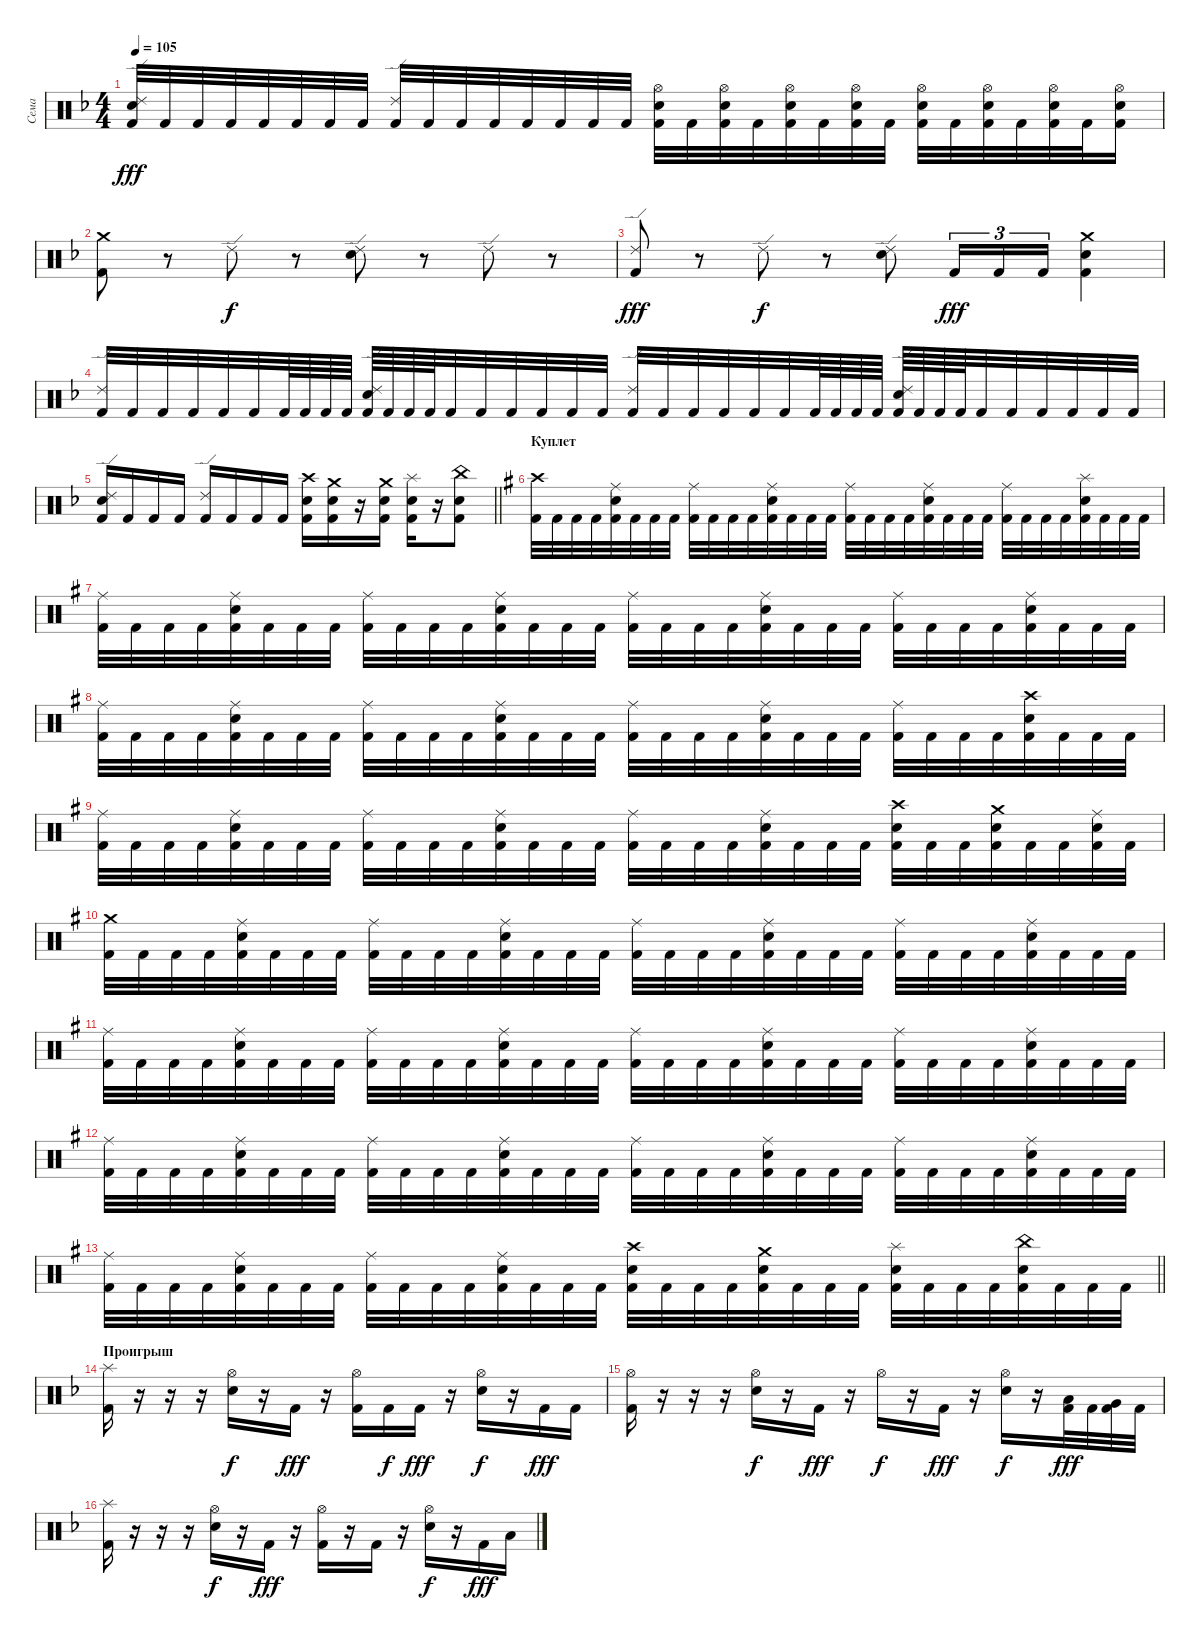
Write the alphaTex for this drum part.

\track ("Сема" "Сема") {instrument percussion}
\staff {score}
\articulation defaults
\ts (4 4)
\tempo 105
\clef neutral
\ks dminor
("Ride (edge) 2" "Electric Snare (hit)" "Kick (hit) 2").32{dy fff} "Kick (hit) 2".32 "Kick (hit) 2".32 "Kick (hit) 2".32 "Kick (hit) 2".32 "Kick (hit) 2".32 "Kick (hit) 2".32 "Kick (hit) 2".32 ("Ride (edge) 2" "Kick (hit) 2").32 "Kick (hit) 2".32 "Kick (hit) 2".32 "Kick (hit) 2".32 "Kick (hit) 2".32 "Kick (hit) 2".32 "Kick (hit) 2".32 "Kick (hit) 2".32 ("Hi-Hat (open)" "Electric Snare (hit)" "Kick (hit) 2").32 "Kick (hit) 2".32 ("Hi-Hat (open)" "Electric Snare (hit)" "Kick (hit) 2").32 "Kick (hit) 2".32 ("Hi-Hat (open)" "Electric Snare (hit)" "Kick (hit) 2").32 "Kick (hit) 2".32 ("Hi-Hat (open)" "Electric Snare (hit)" "Kick (hit) 2").32 "Kick (hit) 2".32 ("Hi-Hat (open)" "Electric Snare (hit)" "Kick (hit) 2").32 "Kick (hit) 2".32 ("Hi-Hat (open)" "Electric Snare (hit)" "Kick (hit) 2").32 "Kick (hit) 2".32 ("Hi-Hat (open)" "Electric Snare (hit)" "Kick (hit) 2").32 "Kick (hit) 2".32 ("Hi-Hat (open)" "Electric Snare (hit)" "Kick (hit) 2").16 |
("Crash medium (hit)" "Kick (hit) 2").8 r.8 "Ride (edge) 2".8{dy f} r.8 ("Ride (edge) 2" "Electric Snare (hit)").8 r.8 "Ride (edge) 2".8 r.8 |
("Ride (edge) 2" "Kick (hit) 2").8{dy fff} r.8 "Ride (edge) 2".8{dy f} r.8 ("Ride (edge) 2" "Electric Snare (hit)").8 "Kick (hit) 2".16{tu (3 2) dy fff} "Kick (hit) 2".16{tu (3 2)} "Kick (hit) 2".16{tu (3 2)} ("Crash medium (hit)" "Electric Snare (hit)" "Kick (hit) 2").4 |
("Ride (edge) 2" "Kick (hit) 2").32 "Kick (hit) 2".32 "Kick (hit) 2".32 "Kick (hit) 2".32 "Kick (hit) 2".32 "Kick (hit) 2".32 "Kick (hit) 2".64 "Kick (hit) 2".64 "Kick (hit) 2".64 "Kick (hit) 2".64 ("Ride (edge) 2" "Electric Snare (hit)" "Kick (hit) 2").64 "Kick (hit) 2".64 "Kick (hit) 2".64 "Kick (hit) 2".64 "Kick (hit) 2".32 "Kick (hit) 2".32 "Kick (hit) 2".32 "Kick (hit) 2".32 "Kick (hit) 2".32 "Kick (hit) 2".32 ("Ride (edge) 2" "Kick (hit) 2").32 "Kick (hit) 2".32 "Kick (hit) 2".32 "Kick (hit) 2".32 "Kick (hit) 2".32 "Kick (hit) 2".32 "Kick (hit) 2".64 "Kick (hit) 2".64 "Kick (hit) 2".64 "Kick (hit) 2".64 ("Ride (edge) 2" "Electric Snare (hit)" "Kick (hit) 2").64 "Kick (hit) 2".64 "Kick (hit) 2".64 "Kick (hit) 2".64 "Kick (hit) 2".32 "Kick (hit) 2".32 "Kick (hit) 2".32 "Kick (hit) 2".32 "Kick (hit) 2".32 "Kick (hit) 2".32 |
\barLineRight lightlight
("Ride (edge) 2" "Electric Snare (hit)" "Kick (hit) 2").16 "Kick (hit) 2".16 "Kick (hit) 2".16 "Kick (hit) 2".16 ("Ride (edge) 2" "Kick (hit) 2").16 "Kick (hit) 2".16 "Kick (hit) 2".16 "Kick (hit) 2".16 ("Crash high (hit)" "Electric Snare (hit)" "Kick (hit) 2").16 ("Crash medium (hit)" "Electric Snare (hit)" "Kick (hit) 2").16 r.16 ("Crash medium (hit)" "Electric Snare (hit)" "Kick (hit) 2").16 ("Splash (hit)" "Electric Snare (hit)" "Kick (hit) 2").16 r.16 ("China (hit)" "Electric Snare (hit)" "Kick (hit) 2").8 |
\section ("" "Куплет")
\ks g
("Crash high (hit)" "Kick (hit) 2").32 "Kick (hit) 2".32 "Kick (hit) 2".32 "Kick (hit) 2".32 ("Ride (middle)" "Electric Snare (hit)" "Kick (hit) 2").32 "Kick (hit) 2".32 "Kick (hit) 2".32 "Kick (hit) 2".32 ("Ride (middle)" "Kick (hit) 2").32 "Kick (hit) 2".32 "Kick (hit) 2".32 "Kick (hit) 2".32 ("Ride (middle)" "Electric Snare (hit)" "Kick (hit) 2").32 "Kick (hit) 2".32 "Kick (hit) 2".32 "Kick (hit) 2".32 ("Ride (middle)" "Kick (hit) 2").32 "Kick (hit) 2".32 "Kick (hit) 2".32 "Kick (hit) 2".32 ("Ride (middle)" "Electric Snare (hit)" "Kick (hit) 2").32 "Kick (hit) 2".32 "Kick (hit) 2".32 "Kick (hit) 2".32 ("Ride (middle)" "Kick (hit) 2").32 "Kick (hit) 2".32 "Kick (hit) 2".32 "Kick (hit) 2".32 ("Splash (hit)" "Electric Snare (hit)" "Kick (hit) 2").32 "Kick (hit) 2".32 "Kick (hit) 2".32 "Kick (hit) 2".32 |
("Ride (middle)" "Kick (hit) 2").32 "Kick (hit) 2".32 "Kick (hit) 2".32 "Kick (hit) 2".32 ("Ride (middle)" "Electric Snare (hit)" "Kick (hit) 2").32 "Kick (hit) 2".32 "Kick (hit) 2".32 "Kick (hit) 2".32 ("Ride (middle)" "Kick (hit) 2").32 "Kick (hit) 2".32 "Kick (hit) 2".32 "Kick (hit) 2".32 ("Ride (middle)" "Electric Snare (hit)" "Kick (hit) 2").32 "Kick (hit) 2".32 "Kick (hit) 2".32 "Kick (hit) 2".32 ("Ride (middle)" "Kick (hit) 2").32 "Kick (hit) 2".32 "Kick (hit) 2".32 "Kick (hit) 2".32 ("Ride (middle)" "Electric Snare (hit)" "Kick (hit) 2").32 "Kick (hit) 2".32 "Kick (hit) 2".32 "Kick (hit) 2".32 ("Ride (middle)" "Kick (hit) 2").32 "Kick (hit) 2".32 "Kick (hit) 2".32 "Kick (hit) 2".32 ("Ride (middle)" "Electric Snare (hit)" "Kick (hit) 2").32 "Kick (hit) 2".32 "Kick (hit) 2".32 "Kick (hit) 2".32 |
("Ride (middle)" "Kick (hit) 2").32 "Kick (hit) 2".32 "Kick (hit) 2".32 "Kick (hit) 2".32 ("Ride (middle)" "Electric Snare (hit)" "Kick (hit) 2").32 "Kick (hit) 2".32 "Kick (hit) 2".32 "Kick (hit) 2".32 ("Ride (middle)" "Kick (hit) 2").32 "Kick (hit) 2".32 "Kick (hit) 2".32 "Kick (hit) 2".32 ("Ride (middle)" "Electric Snare (hit)" "Kick (hit) 2").32 "Kick (hit) 2".32 "Kick (hit) 2".32 "Kick (hit) 2".32 ("Ride (middle)" "Kick (hit) 2").32 "Kick (hit) 2".32 "Kick (hit) 2".32 "Kick (hit) 2".32 ("Ride (middle)" "Electric Snare (hit)" "Kick (hit) 2").32 "Kick (hit) 2".32 "Kick (hit) 2".32 "Kick (hit) 2".32 ("Ride (middle)" "Kick (hit) 2").32 "Kick (hit) 2".32 "Kick (hit) 2".32 "Kick (hit) 2".32 ("Crash high (hit)" "Electric Snare (hit)" "Kick (hit) 2").32 "Kick (hit) 2".32 "Kick (hit) 2".32 "Kick (hit) 2".32 |
("Ride (middle)" "Kick (hit) 2").32 "Kick (hit) 2".32 "Kick (hit) 2".32 "Kick (hit) 2".32 ("Ride (middle)" "Electric Snare (hit)" "Kick (hit) 2").32 "Kick (hit) 2".32 "Kick (hit) 2".32 "Kick (hit) 2".32 ("Ride (middle)" "Kick (hit) 2").32 "Kick (hit) 2".32 "Kick (hit) 2".32 "Kick (hit) 2".32 ("Ride (middle)" "Electric Snare (hit)" "Kick (hit) 2").32 "Kick (hit) 2".32 "Kick (hit) 2".32 "Kick (hit) 2".32 ("Ride (middle)" "Kick (hit) 2").32 "Kick (hit) 2".32 "Kick (hit) 2".32 "Kick (hit) 2".32 ("Ride (middle)" "Electric Snare (hit)" "Kick (hit) 2").32 "Kick (hit) 2".32 "Kick (hit) 2".32 "Kick (hit) 2".32 ("Crash high (hit)" "Electric Snare (hit)" "Kick (hit) 2").32 "Kick (hit) 2".32 "Kick (hit) 2".32 ("Crash medium (hit)" "Electric Snare (hit)" "Kick (hit) 2").32 "Kick (hit) 2".32 "Kick (hit) 2".32 ("Ride (middle)" "Electric Snare (hit)" "Kick (hit) 2").32 "Kick (hit) 2".32 |
("Crash medium (hit)" "Kick (hit) 2").32 "Kick (hit) 2".32 "Kick (hit) 2".32 "Kick (hit) 2".32 ("Ride (middle)" "Electric Snare (hit)" "Kick (hit) 2").32 "Kick (hit) 2".32 "Kick (hit) 2".32 "Kick (hit) 2".32 ("Ride (middle)" "Kick (hit) 2").32 "Kick (hit) 2".32 "Kick (hit) 2".32 "Kick (hit) 2".32 ("Ride (middle)" "Electric Snare (hit)" "Kick (hit) 2").32 "Kick (hit) 2".32 "Kick (hit) 2".32 "Kick (hit) 2".32 ("Ride (middle)" "Kick (hit) 2").32 "Kick (hit) 2".32 "Kick (hit) 2".32 "Kick (hit) 2".32 ("Ride (middle)" "Electric Snare (hit)" "Kick (hit) 2").32 "Kick (hit) 2".32 "Kick (hit) 2".32 "Kick (hit) 2".32 ("Ride (middle)" "Kick (hit) 2").32 "Kick (hit) 2".32 "Kick (hit) 2".32 "Kick (hit) 2".32 ("Ride (middle)" "Electric Snare (hit)" "Kick (hit) 2").32 "Kick (hit) 2".32 "Kick (hit) 2".32 "Kick (hit) 2".32 |
("Ride (middle)" "Kick (hit) 2").32 "Kick (hit) 2".32 "Kick (hit) 2".32 "Kick (hit) 2".32 ("Ride (middle)" "Electric Snare (hit)" "Kick (hit) 2").32 "Kick (hit) 2".32 "Kick (hit) 2".32 "Kick (hit) 2".32 ("Ride (middle)" "Kick (hit) 2").32 "Kick (hit) 2".32 "Kick (hit) 2".32 "Kick (hit) 2".32 ("Ride (middle)" "Electric Snare (hit)" "Kick (hit) 2").32 "Kick (hit) 2".32 "Kick (hit) 2".32 "Kick (hit) 2".32 ("Ride (middle)" "Kick (hit) 2").32 "Kick (hit) 2".32 "Kick (hit) 2".32 "Kick (hit) 2".32 ("Ride (middle)" "Electric Snare (hit)" "Kick (hit) 2").32 "Kick (hit) 2".32 "Kick (hit) 2".32 "Kick (hit) 2".32 ("Ride (middle)" "Kick (hit) 2").32 "Kick (hit) 2".32 "Kick (hit) 2".32 "Kick (hit) 2".32 ("Ride (middle)" "Electric Snare (hit)" "Kick (hit) 2").32 "Kick (hit) 2".32 "Kick (hit) 2".32 "Kick (hit) 2".32 |
("Ride (middle)" "Kick (hit) 2").32 "Kick (hit) 2".32 "Kick (hit) 2".32 "Kick (hit) 2".32 ("Ride (middle)" "Electric Snare (hit)" "Kick (hit) 2").32 "Kick (hit) 2".32 "Kick (hit) 2".32 "Kick (hit) 2".32 ("Ride (middle)" "Kick (hit) 2").32 "Kick (hit) 2".32 "Kick (hit) 2".32 "Kick (hit) 2".32 ("Ride (middle)" "Electric Snare (hit)" "Kick (hit) 2").32 "Kick (hit) 2".32 "Kick (hit) 2".32 "Kick (hit) 2".32 ("Ride (middle)" "Kick (hit) 2").32 "Kick (hit) 2".32 "Kick (hit) 2".32 "Kick (hit) 2".32 ("Ride (middle)" "Electric Snare (hit)" "Kick (hit) 2").32 "Kick (hit) 2".32 "Kick (hit) 2".32 "Kick (hit) 2".32 ("Ride (middle)" "Kick (hit) 2").32 "Kick (hit) 2".32 "Kick (hit) 2".32 "Kick (hit) 2".32 ("Ride (middle)" "Electric Snare (hit)" "Kick (hit) 2").32 "Kick (hit) 2".32 "Kick (hit) 2".32 "Kick (hit) 2".32 |
\barLineRight lightlight
("Ride (middle)" "Kick (hit) 2").32 "Kick (hit) 2".32 "Kick (hit) 2".32 "Kick (hit) 2".32 ("Ride (middle)" "Electric Snare (hit)" "Kick (hit) 2").32 "Kick (hit) 2".32 "Kick (hit) 2".32 "Kick (hit) 2".32 ("Ride (middle)" "Kick (hit) 2").32 "Kick (hit) 2".32 "Kick (hit) 2".32 "Kick (hit) 2".32 ("Ride (middle)" "Electric Snare (hit)" "Kick (hit) 2").32 "Kick (hit) 2".32 "Kick (hit) 2".32 "Kick (hit) 2".32 ("Crash high (hit)" "Electric Snare (hit)" "Kick (hit) 2").32 "Kick (hit) 2".32 "Kick (hit) 2".32 "Kick (hit) 2".32 ("Crash medium (hit)" "Electric Snare (hit)" "Kick (hit) 2").32 "Kick (hit) 2".32 "Kick (hit) 2".32 "Kick (hit) 2".32 ("Splash (hit)" "Electric Snare (hit)" "Kick (hit) 2").32 "Kick (hit) 2".32 "Kick (hit) 2".32 "Kick (hit) 2".32 ("China (hit)" "Electric Snare (hit)" "Kick (hit) 2").32 "Kick (hit) 2".32 "Kick (hit) 2".32 "Kick (hit) 2".32 |
\section ("" "Проигрыш")
\ks dminor
("Splash (hit)" "Kick (hit) 2").16 r.16 r.16 r.16 ("Hi-Hat (open)" "Electric Snare (hit)").16{dy f} r.16 "Kick (hit) 2".16{dy fff} r.16 ("Hi-Hat (open)" "Kick (hit) 2").16 "Kick (hit) 2".16{dy f} "Kick (hit) 2".16{dy fff} r.16 ("Hi-Hat (open)" "Electric Snare (hit)").16{dy f} r.16 "Kick (hit) 2".16{dy fff} "Kick (hit) 2".16 |
("Hi-Hat (open)" "Kick (hit) 2").16 r.16 r.16 r.16 ("Hi-Hat (open)" "Electric Snare (hit)").16{dy f} r.16 "Kick (hit) 2".16{dy fff} r.16 "Hi-Hat (open)".16{dy f} r.16 "Kick (hit) 2".16{dy fff} r.16 ("Hi-Hat (open)" "Electric Snare (hit)").16{dy f} r.16 ("Low Tom (hit)" "Kick (hit) 2").32{dy fff} "Kick (hit) 2".32 ("Very Low Tom (hit)" "Kick (hit) 2").32 "Kick (hit) 2".32 |
("Splash (hit)" "Kick (hit) 2").16 r.16 r.16 r.16 ("Hi-Hat (open)" "Electric Snare (hit)").16{dy f} r.16 "Kick (hit) 2".16{dy fff} r.16 ("Hi-Hat (open)" "Kick (hit) 2").16 r.16 "Kick (hit) 2".16 r.16 ("Hi-Hat (open)" "Electric Snare (hit)").16{dy f} r.16 "Kick (hit) 2".16{dy fff} "Low Floor Tom (hit)".16
